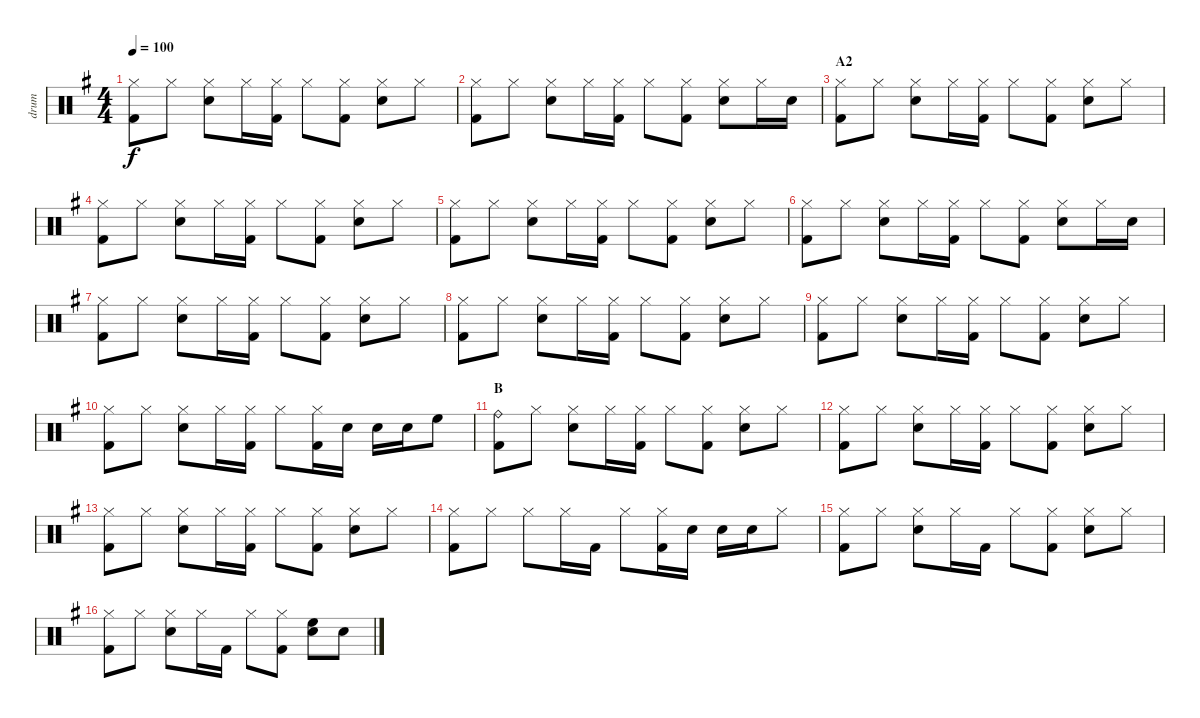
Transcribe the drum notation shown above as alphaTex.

\track ("drum" "drum") {instrument percussion}
\staff {score}
\articulation defaults
\ts (4 4)
\tempo 100
\clef neutral
\ks g
("Hi-Hat (closed)" "Kick (hit) 2").8{dy f} "Hi-Hat (closed)".8 ("Hi-Hat (closed)" "Snare (hit) 2").8 "Hi-Hat (closed)".16 ("Hi-Hat (closed)" "Kick (hit) 2").16 "Hi-Hat (closed)".8 ("Hi-Hat (closed)" "Kick (hit) 2").8 ("Hi-Hat (closed)" "Snare (hit) 2").8 "Hi-Hat (closed)".8 |
("Hi-Hat (closed)" "Kick (hit) 2").8 "Hi-Hat (closed)".8 ("Hi-Hat (closed)" "Snare (hit) 2").8 "Hi-Hat (closed)".16 ("Hi-Hat (closed)" "Kick (hit) 2").16 "Hi-Hat (closed)".8 ("Hi-Hat (closed)" "Kick (hit) 2").8 ("Hi-Hat (closed)" "Snare (hit) 2").8 "Hi-Hat (closed)".16 "Snare (hit) 2".16 |
\section ("" "A2")
("Hi-Hat (closed)" "Kick (hit) 2").8 "Hi-Hat (closed)".8 ("Hi-Hat (closed)" "Snare (hit) 2").8 "Hi-Hat (closed)".16 ("Hi-Hat (closed)" "Kick (hit) 2").16 "Hi-Hat (closed)".8 ("Hi-Hat (closed)" "Kick (hit) 2").8 ("Hi-Hat (closed)" "Snare (hit) 2").8 "Hi-Hat (closed)".8 |
("Hi-Hat (closed)" "Kick (hit) 2").8 "Hi-Hat (closed)".8 ("Hi-Hat (closed)" "Snare (hit) 2").8 "Hi-Hat (closed)".16 ("Hi-Hat (closed)" "Kick (hit) 2").16 "Hi-Hat (closed)".8 ("Hi-Hat (closed)" "Kick (hit) 2").8 ("Hi-Hat (closed)" "Snare (hit) 2").8 "Hi-Hat (closed)".8 |
("Hi-Hat (closed)" "Kick (hit) 2").8 "Hi-Hat (closed)".8 ("Hi-Hat (closed)" "Snare (hit) 2").8 "Hi-Hat (closed)".16 ("Hi-Hat (closed)" "Kick (hit) 2").16 "Hi-Hat (closed)".8 ("Hi-Hat (closed)" "Kick (hit) 2").8 ("Hi-Hat (closed)" "Snare (hit) 2").8 "Hi-Hat (closed)".8 |
("Hi-Hat (closed)" "Kick (hit) 2").8 "Hi-Hat (closed)".8 ("Hi-Hat (closed)" "Snare (hit) 2").8 "Hi-Hat (closed)".16 ("Hi-Hat (closed)" "Kick (hit) 2").16 "Hi-Hat (closed)".8 ("Hi-Hat (closed)" "Kick (hit) 2").8 ("Hi-Hat (closed)" "Snare (hit) 2").8 "Hi-Hat (closed)".16 "Snare (hit) 2".16 |
("Hi-Hat (closed)" "Kick (hit) 2").8 "Hi-Hat (closed)".8 ("Hi-Hat (closed)" "Snare (hit) 2").8 "Hi-Hat (closed)".16 ("Hi-Hat (closed)" "Kick (hit) 2").16 "Hi-Hat (closed)".8 ("Hi-Hat (closed)" "Kick (hit) 2").8 ("Hi-Hat (closed)" "Snare (hit) 2").8 "Hi-Hat (closed)".8 |
("Hi-Hat (closed)" "Kick (hit) 2").8 "Hi-Hat (closed)".8 ("Hi-Hat (closed)" "Snare (hit) 2").8 "Hi-Hat (closed)".16 ("Hi-Hat (closed)" "Kick (hit) 2").16 "Hi-Hat (closed)".8 ("Hi-Hat (closed)" "Kick (hit) 2").8 ("Hi-Hat (closed)" "Snare (hit) 2").8 "Hi-Hat (closed)".8 |
("Hi-Hat (closed)" "Kick (hit) 2").8 "Hi-Hat (closed)".8 ("Hi-Hat (closed)" "Snare (hit) 2").8 "Hi-Hat (closed)".16 ("Hi-Hat (closed)" "Kick (hit) 2").16 "Hi-Hat (closed)".8 ("Hi-Hat (closed)" "Kick (hit) 2").8 ("Hi-Hat (closed)" "Snare (hit) 2").8 "Hi-Hat (closed)".8 |
("Hi-Hat (closed)" "Kick (hit) 2").8 "Hi-Hat (closed)".8 ("Hi-Hat (closed)" "Snare (hit) 2").8 "Hi-Hat (closed)".16 ("Hi-Hat (closed)" "Kick (hit) 2").16 "Hi-Hat (closed)".8 ("Hi-Hat (closed)" "Kick (hit) 2").16 "Snare (hit) 2".16 "Snare (hit) 2".16 "Snare (hit) 2".16 "High Floor Tom (hit)".8 |
\section ("" "B")
("Ride (bell)" "Kick (hit) 2").8 "Hi-Hat (closed)".8 ("Hi-Hat (closed)" "Snare (hit) 2").8 "Hi-Hat (closed)".16 ("Hi-Hat (closed)" "Kick (hit) 2").16 "Hi-Hat (closed)".8 ("Hi-Hat (closed)" "Kick (hit) 2").8 ("Hi-Hat (closed)" "Snare (hit) 2").8 "Hi-Hat (closed)".8 |
("Hi-Hat (closed)" "Kick (hit) 2").8 "Hi-Hat (closed)".8 ("Hi-Hat (closed)" "Snare (hit) 2").8 "Hi-Hat (closed)".16 ("Hi-Hat (closed)" "Kick (hit) 2").16 "Hi-Hat (closed)".8 ("Hi-Hat (closed)" "Kick (hit) 2").8 ("Hi-Hat (closed)" "Snare (hit) 2").8 "Hi-Hat (closed)".8 |
("Hi-Hat (closed)" "Kick (hit) 2").8 "Hi-Hat (closed)".8 ("Hi-Hat (closed)" "Snare (hit) 2").8 "Hi-Hat (closed)".16 ("Hi-Hat (closed)" "Kick (hit) 2").16 "Hi-Hat (closed)".8 ("Hi-Hat (closed)" "Kick (hit) 2").8 ("Hi-Hat (closed)" "Snare (hit) 2").8 "Hi-Hat (closed)".8 |
("Hi-Hat (closed)" "Kick (hit) 2").8 "Hi-Hat (closed)".8 "Hi-Hat (closed)".8 "Hi-Hat (closed)".16 "Kick (hit) 2".16 "Hi-Hat (closed)".8 ("Hi-Hat (closed)" "Kick (hit) 2").16 "Snare (hit) 2".16 "Snare (hit) 2".16 "Snare (hit) 2".16 "Hi-Hat (closed)".8 |
("Hi-Hat (closed)" "Kick (hit) 2").8 "Hi-Hat (closed)".8 ("Hi-Hat (closed)" "Snare (hit) 2").8 "Hi-Hat (closed)".16 "Kick (hit) 2".16 "Hi-Hat (closed)".8 ("Hi-Hat (closed)" "Kick (hit) 2").8 ("Hi-Hat (closed)" "Snare (hit) 2").8 "Hi-Hat (closed)".8 |
("Hi-Hat (closed)" "Kick (hit) 2").8 "Hi-Hat (closed)".8 ("Hi-Hat (closed)" "Snare (hit) 2").8 "Hi-Hat (closed)".16 "Kick (hit) 2".16 "Hi-Hat (closed)".8 ("Hi-Hat (closed)" "Kick (hit) 2").8 ("High Floor Tom (hit)" "Snare (hit) 2").8 "Snare (hit) 2".8
